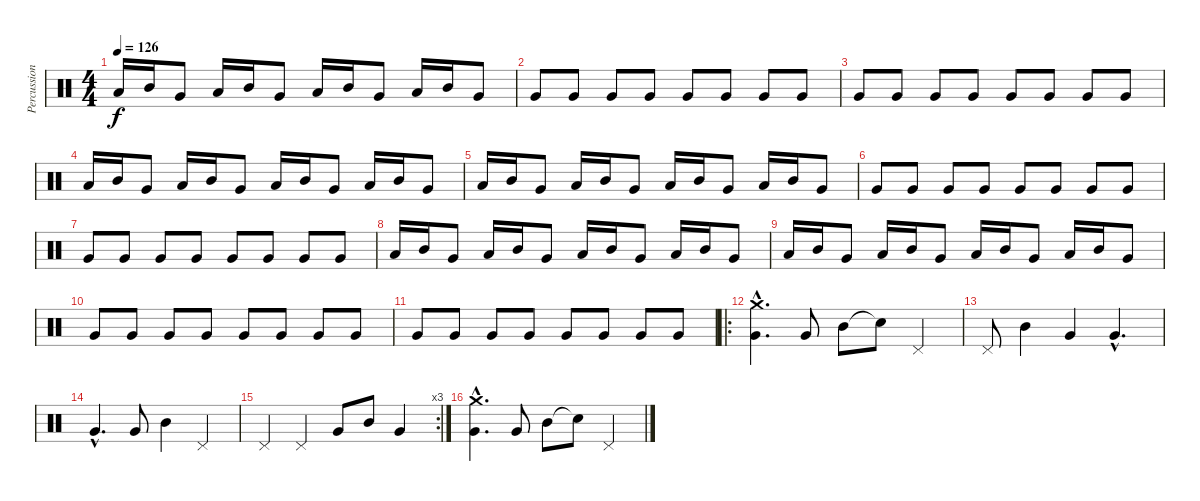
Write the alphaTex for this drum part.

\track ("Percussion" "Percussion") {instrument percussion}
\staff {score}
\articulation defaults
\ts (4 4)
\tempo 126
\clef neutral
\ks c "Low Tom (hit)".16{dy f} "Mid Tom (hit)".16 "Very Low Tom (hit)".8 "Low Tom (hit)".16 "Mid Tom (hit)".16 "Very Low Tom (hit)".8 "Low Tom (hit)".16 "Mid Tom (hit)".16 "Very Low Tom (hit)".8 "Low Tom (hit)".16 "Mid Tom (hit)".16 "Very Low Tom (hit)".8
|
"Very Low Tom (hit)".8 "Very Low Tom (hit)".8 "Very Low Tom (hit)".8 "Very Low Tom (hit)".8 "Very Low Tom (hit)".8 "Very Low Tom (hit)".8 "Very Low Tom (hit)".8 "Very Low Tom (hit)".8 |
"Very Low Tom (hit)".8 "Very Low Tom (hit)".8 "Very Low Tom (hit)".8 "Very Low Tom (hit)".8 "Very Low Tom (hit)".8 "Very Low Tom (hit)".8 "Very Low Tom (hit)".8 "Very Low Tom (hit)".8 |
"Low Tom (hit)".16 "Mid Tom (hit)".16 "Very Low Tom (hit)".8 "Low Tom (hit)".16 "Mid Tom (hit)".16 "Very Low Tom (hit)".8 "Low Tom (hit)".16 "Mid Tom (hit)".16 "Very Low Tom (hit)".8 "Low Tom (hit)".16 "Mid Tom (hit)".16 "Very Low Tom (hit)".8 |
"Low Tom (hit)".16 "Mid Tom (hit)".16 "Very Low Tom (hit)".8 "Low Tom (hit)".16 "Mid Tom (hit)".16 "Very Low Tom (hit)".8 "Low Tom (hit)".16 "Mid Tom (hit)".16 "Very Low Tom (hit)".8 "Low Tom (hit)".16 "Mid Tom (hit)".16 "Very Low Tom (hit)".8 |
"Very Low Tom (hit)".8 "Very Low Tom (hit)".8 "Very Low Tom (hit)".8 "Very Low Tom (hit)".8 "Very Low Tom (hit)".8 "Very Low Tom (hit)".8 "Very Low Tom (hit)".8 "Very Low Tom (hit)".8 |
"Very Low Tom (hit)".8 "Very Low Tom (hit)".8 "Very Low Tom (hit)".8 "Very Low Tom (hit)".8 "Very Low Tom (hit)".8 "Very Low Tom (hit)".8 "Very Low Tom (hit)".8 "Very Low Tom (hit)".8 |
"Low Tom (hit)".16 "Mid Tom (hit)".16 "Very Low Tom (hit)".8 "Low Tom (hit)".16 "Mid Tom (hit)".16 "Very Low Tom (hit)".8 "Low Tom (hit)".16 "Mid Tom (hit)".16 "Very Low Tom (hit)".8 "Low Tom (hit)".16 "Mid Tom (hit)".16 "Very Low Tom (hit)".8 |
"Low Tom (hit)".16 "Mid Tom (hit)".16 "Very Low Tom (hit)".8 "Low Tom (hit)".16 "Mid Tom (hit)".16 "Very Low Tom (hit)".8 "Low Tom (hit)".16 "Mid Tom (hit)".16 "Very Low Tom (hit)".8 "Low Tom (hit)".16 "Mid Tom (hit)".16 "Very Low Tom (hit)".8 |
"Very Low Tom (hit)".8 "Very Low Tom (hit)".8 "Very Low Tom (hit)".8 "Very Low Tom (hit)".8 "Very Low Tom (hit)".8 "Very Low Tom (hit)".8 "Very Low Tom (hit)".8 "Very Low Tom (hit)".8 |
"Very Low Tom (hit)".8 "Very Low Tom (hit)".8 "Very Low Tom (hit)".8 "Very Low Tom (hit)".8 "Very Low Tom (hit)".8 "Very Low Tom (hit)".8 "Very Low Tom (hit)".8 "Very Low Tom (hit)".8 |
\ro
("Very Low Tom (hit)"{hac} "Crash medium (hit)"{hac}).4{d} "Very Low Tom (hit)".8 "Mid Tom (hit)".8 "Snare (hit)"{t}.8 "Pedal Hi-Hat (hit)".4 |
"Pedal Hi-Hat (hit)".8 "Mid Tom (hit)".4 "Very Low Tom (hit)".4 "Very Low Tom (hit)"{hac}.4{d} |
"Very Low Tom (hit)"{hac}.4{d} "Very Low Tom (hit)".8 "Mid Tom (hit)".4 "Pedal Hi-Hat (hit)".4 |
\rc 3 "Pedal Hi-Hat (hit)".4 "Pedal Hi-Hat (hit)".4 "Very Low Tom (hit)".8 "Mid Tom (hit)".8 "Very Low Tom (hit)".4
|
("Very Low Tom (hit)"{hac} "Crash medium (hit)"{hac}).4{d} "Very Low Tom (hit)".8 "Mid Tom (hit)".8 "Snare (hit)"{t}.8 "Pedal Hi-Hat (hit)".4
